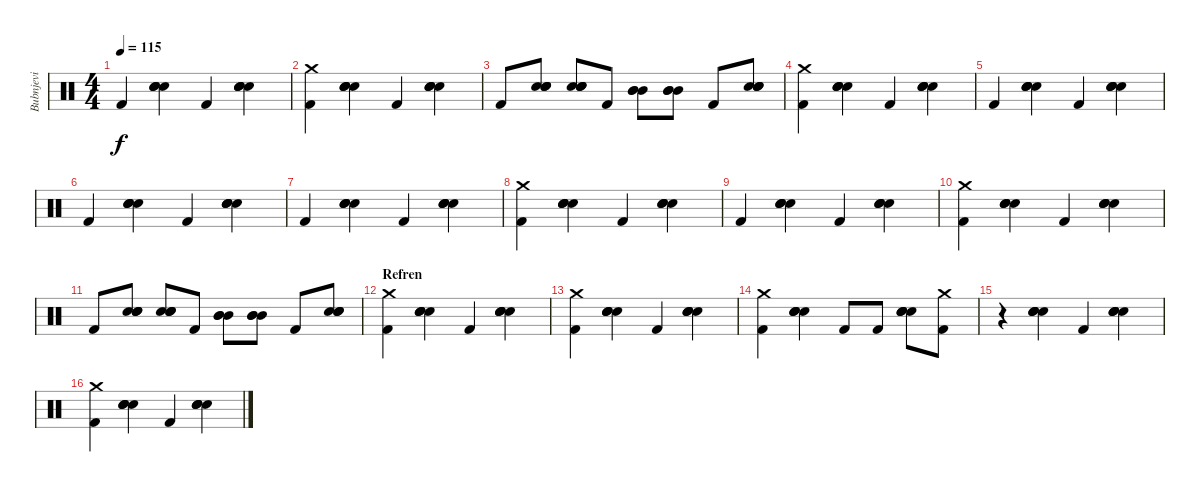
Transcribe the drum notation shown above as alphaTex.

\track ("Bubnjevi" "Bubnjevi") {instrument percussion}
\staff {score}
\articulation defaults
\ts (4 4)
\tempo 115
\clef neutral
\ks c "Kick (hit) 2".4{dy f}
("Electric Snare (hit)" "Electric Snare (hit)" "Electric Snare (hit)" "Electric Snare (hit)").4 "Kick (hit) 2".4 ("Electric Snare (hit)" "Electric Snare (hit)" "Electric Snare (hit)" "Electric Snare (hit)").4 |
("Crash medium (hit)" "Kick (hit) 2").4 ("Electric Snare (hit)" "Electric Snare (hit)" "Electric Snare (hit)" "Electric Snare (hit)").4 "Kick (hit) 2".4 ("Electric Snare (hit)" "Electric Snare (hit)" "Electric Snare (hit)" "Electric Snare (hit)").4 |
"Kick (hit) 2".8 ("Electric Snare (hit)" "Electric Snare (hit)" "Electric Snare (hit)" "Electric Snare (hit)").8 ("Electric Snare (hit)" "Electric Snare (hit)" "Electric Snare (hit)" "Electric Snare (hit)").8 "Kick (hit) 2".8 ("Mid Tom (hit)" "Mid Tom (hit)" "Mid Tom (hit)").8 ("Mid Tom (hit)" "Mid Tom (hit)" "Mid Tom (hit)").8 "Kick (hit) 2".8 ("Electric Snare (hit)" "Electric Snare (hit)" "Electric Snare (hit)" "Electric Snare (hit)").8 |
("Crash medium (hit)" "Kick (hit) 2").4 ("Electric Snare (hit)" "Electric Snare (hit)" "Electric Snare (hit)" "Electric Snare (hit)").4 "Kick (hit) 2".4 ("Electric Snare (hit)" "Electric Snare (hit)" "Electric Snare (hit)" "Electric Snare (hit)").4 |
"Kick (hit) 2".4 ("Electric Snare (hit)" "Electric Snare (hit)" "Electric Snare (hit)" "Electric Snare (hit)").4 "Kick (hit) 2".4 ("Electric Snare (hit)" "Electric Snare (hit)" "Electric Snare (hit)" "Electric Snare (hit)").4 |
"Kick (hit) 2".4 ("Electric Snare (hit)" "Electric Snare (hit)" "Electric Snare (hit)" "Electric Snare (hit)").4 "Kick (hit) 2".4 ("Electric Snare (hit)" "Electric Snare (hit)" "Electric Snare (hit)" "Electric Snare (hit)").4 |
"Kick (hit) 2".4 ("Electric Snare (hit)" "Electric Snare (hit)" "Electric Snare (hit)" "Electric Snare (hit)").4 "Kick (hit) 2".4 ("Electric Snare (hit)" "Electric Snare (hit)" "Electric Snare (hit)" "Electric Snare (hit)").4 |
("Crash medium (hit)" "Kick (hit) 2").4 ("Electric Snare (hit)" "Electric Snare (hit)" "Electric Snare (hit)" "Electric Snare (hit)").4 "Kick (hit) 2".4 ("Electric Snare (hit)" "Electric Snare (hit)" "Electric Snare (hit)" "Electric Snare (hit)").4 |
"Kick (hit) 2".4 ("Electric Snare (hit)" "Electric Snare (hit)" "Electric Snare (hit)" "Electric Snare (hit)").4 "Kick (hit) 2".4 ("Electric Snare (hit)" "Electric Snare (hit)" "Electric Snare (hit)" "Electric Snare (hit)").4 |
("Crash medium (hit)" "Kick (hit) 2").4 ("Electric Snare (hit)" "Electric Snare (hit)" "Electric Snare (hit)" "Electric Snare (hit)").4 "Kick (hit) 2".4 ("Electric Snare (hit)" "Electric Snare (hit)" "Electric Snare (hit)" "Electric Snare (hit)").4 |
"Kick (hit) 2".8 ("Electric Snare (hit)" "Electric Snare (hit)" "Electric Snare (hit)" "Electric Snare (hit)").8 ("Electric Snare (hit)" "Electric Snare (hit)" "Electric Snare (hit)" "Electric Snare (hit)").8 "Kick (hit) 2".8 ("Mid Tom (hit)" "Mid Tom (hit)" "Mid Tom (hit)").8 ("Mid Tom (hit)" "Mid Tom (hit)" "Mid Tom (hit)").8 "Kick (hit) 2".8 ("Electric Snare (hit)" "Electric Snare (hit)" "Electric Snare (hit)" "Electric Snare (hit)").8 |
\section ("" "Refren")
("Crash medium (hit)" "Kick (hit) 2").4 ("Electric Snare (hit)" "Electric Snare (hit)" "Electric Snare (hit)" "Electric Snare (hit)").4 "Kick (hit) 2".4 ("Electric Snare (hit)" "Electric Snare (hit)" "Electric Snare (hit)" "Electric Snare (hit)").4 |
("Crash medium (hit)" "Kick (hit) 2").4 ("Electric Snare (hit)" "Electric Snare (hit)" "Electric Snare (hit)" "Electric Snare (hit)").4 "Kick (hit) 2".4 ("Electric Snare (hit)" "Electric Snare (hit)" "Electric Snare (hit)" "Electric Snare (hit)").4 |
("Crash medium (hit)" "Kick (hit) 2").4 ("Electric Snare (hit)" "Electric Snare (hit)" "Electric Snare (hit)" "Electric Snare (hit)").4 "Kick (hit) 2".8 "Kick (hit) 2".8 ("Electric Snare (hit)" "Electric Snare (hit)" "Electric Snare (hit)" "Electric Snare (hit)").8 ("Crash medium (hit)" "Kick (hit) 2").8 |
r.4 ("Electric Snare (hit)" "Electric Snare (hit)" "Electric Snare (hit)" "Electric Snare (hit)").4 "Kick (hit) 2".4 ("Electric Snare (hit)" "Electric Snare (hit)" "Electric Snare (hit)" "Electric Snare (hit)").4 |
("Crash medium (hit)" "Kick (hit) 2").4 ("Electric Snare (hit)" "Electric Snare (hit)" "Electric Snare (hit)" "Electric Snare (hit)").4 "Kick (hit) 2".4 ("Electric Snare (hit)" "Electric Snare (hit)" "Electric Snare (hit)" "Electric Snare (hit)").4
